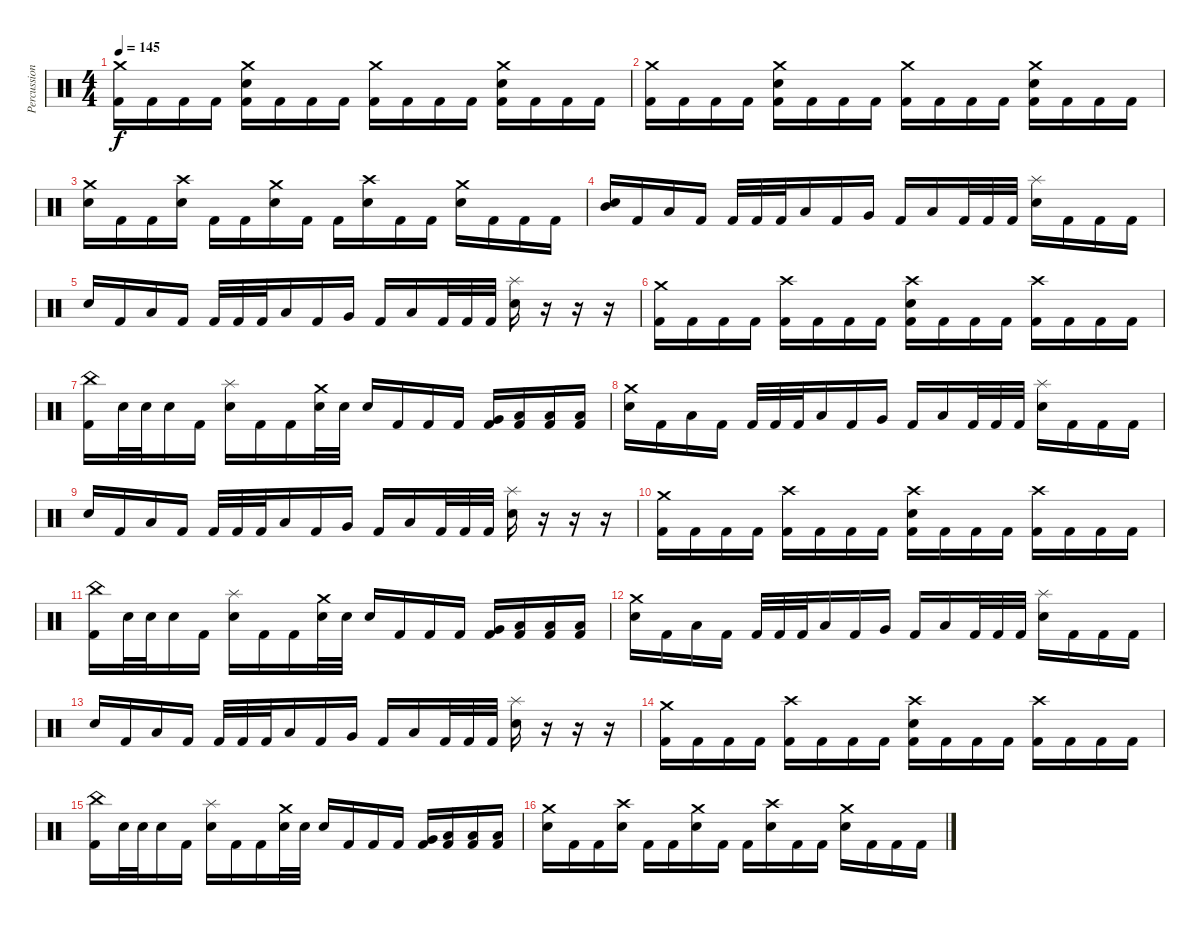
\track ("Percussion" "Percussion") {instrument percussion}
\staff {score}
\articulation defaults
\ts (4 4)
\tempo 145
\clef neutral
\ks c
("Crash medium (hit)" "Kick (hit) 2").16{dy f} "Kick (hit) 2".16 "Kick (hit) 2".16 "Kick (hit) 2".16 ("Crash medium (hit)" "Electric Snare (hit)" "Kick (hit) 2").16 "Kick (hit) 2".16 "Kick (hit) 2".16 "Kick (hit) 2".16 ("Crash medium (hit)" "Kick (hit) 2").16 "Kick (hit) 2".16 "Kick (hit) 2".16 "Kick (hit) 2".16 ("Crash medium (hit)" "Electric Snare (hit)" "Kick (hit) 2").16 "Kick (hit) 2".16 "Kick (hit) 2".16 "Kick (hit) 2".16 |
("Crash medium (hit)" "Kick (hit) 2").16 "Kick (hit) 2".16 "Kick (hit) 2".16 "Kick (hit) 2".16 ("Crash medium (hit)" "Electric Snare (hit)" "Kick (hit) 2").16 "Kick (hit) 2".16 "Kick (hit) 2".16 "Kick (hit) 2".16 ("Crash medium (hit)" "Kick (hit) 2").16 "Kick (hit) 2".16 "Kick (hit) 2".16 "Kick (hit) 2".16 ("Crash medium (hit)" "Electric Snare (hit)" "Kick (hit) 2").16 "Kick (hit) 2".16 "Kick (hit) 2".16 "Kick (hit) 2".16 |
("Crash medium (hit)" "Electric Snare (hit)").16 "Kick (hit) 2".16 "Kick (hit) 2".16 ("Crash high (hit)" "Electric Snare (hit)").16 "Kick (hit) 2".16 "Kick (hit) 2".16 ("Crash medium (hit)" "Electric Snare (hit)").16 "Kick (hit) 2".16 "Kick (hit) 2".16 ("Crash high (hit)" "Electric Snare (hit)").16 "Kick (hit) 2".16 "Kick (hit) 2".16 ("Crash medium (hit)" "Electric Snare (hit)").16 "Kick (hit) 2".16 "Kick (hit) 2".16 "Kick (hit) 2".16 |
("Electric Snare (hit)" "Mid Tom (hit)").16 "Kick (hit) 2".16 "Low Tom (hit)".16 "Kick (hit) 2".16 "Kick (hit) 2".32 "Kick (hit) 2".32 "Kick (hit) 2".32 "Low Tom (hit)".16 "Kick (hit) 2".16 "Very Low Tom (hit)".16 "Kick (hit) 2".16 "Low Floor Tom (hit)".16 "Kick (hit) 2".32 "Kick (hit) 2".32 "Kick (hit) 2".32 ("Splash (hit)" "Electric Snare (hit)").16 "Kick (hit) 2".16 "Kick (hit) 2".16 "Kick (hit) 2".16 |
"Electric Snare (hit)".16 "Kick (hit) 2".16 "Low Tom (hit)".16 "Kick (hit) 2".16 "Kick (hit) 2".32 "Kick (hit) 2".32 "Kick (hit) 2".32 "Low Tom (hit)".16 "Kick (hit) 2".16 "Very Low Tom (hit)".16 "Kick (hit) 2".16 "Low Floor Tom (hit)".16 "Kick (hit) 2".32 "Kick (hit) 2".32 "Kick (hit) 2".32 ("Splash (hit)" "Electric Snare (hit)").16 r.16 r.16 r.16 |
("Crash medium (hit)" "Kick (hit) 2").16 "Kick (hit) 2".16 "Kick (hit) 2".16 "Kick (hit) 2".16 ("Crash high (hit)" "Kick (hit) 2").16 "Kick (hit) 2".16 "Kick (hit) 2".16 "Kick (hit) 2".16 ("Crash high (hit)" "Electric Snare (hit)" "Kick (hit) 2").16 "Kick (hit) 2".16 "Kick (hit) 2".16 "Kick (hit) 2".16 ("Crash high (hit)" "Kick (hit) 2").16 "Kick (hit) 2".16 "Kick (hit) 2".16 "Kick (hit) 2".16 |
("China (hit)" "Kick (hit) 2").16 "Electric Snare (hit)".32 "Electric Snare (hit)".32 "Electric Snare (hit)".16 "Kick (hit) 2".16 ("Splash (hit)" "Electric Snare (hit)").16 "Kick (hit) 2".16 "Kick (hit) 2".16 ("Crash medium (hit)" "Electric Snare (hit)").32 "Electric Snare (hit)".32 "Electric Snare (hit)".16 "Kick (hit) 2".16 "Kick (hit) 2".16 "Kick (hit) 2".16 ("Very Low Tom (hit)" "Kick (hit) 2").16 ("Low Floor Tom (hit)" "Kick (hit) 2").16 ("Low Floor Tom (hit)" "Kick (hit) 2").16 ("Low Floor Tom (hit)" "Kick (hit) 2").16 |
("Crash medium (hit)" "Electric Snare (hit)").16 "Kick (hit) 2".16 "Low Tom (hit)".16 "Kick (hit) 2".16 "Kick (hit) 2".32 "Kick (hit) 2".32 "Kick (hit) 2".32 "Low Tom (hit)".16 "Kick (hit) 2".16 "Very Low Tom (hit)".16 "Kick (hit) 2".16 "Low Floor Tom (hit)".16 "Kick (hit) 2".32 "Kick (hit) 2".32 "Kick (hit) 2".32 ("Splash (hit)" "Electric Snare (hit)").16 "Kick (hit) 2".16 "Kick (hit) 2".16 "Kick (hit) 2".16 |
"Electric Snare (hit)".16 "Kick (hit) 2".16 "Low Tom (hit)".16 "Kick (hit) 2".16 "Kick (hit) 2".32 "Kick (hit) 2".32 "Kick (hit) 2".32 "Low Tom (hit)".16 "Kick (hit) 2".16 "Very Low Tom (hit)".16 "Kick (hit) 2".16 "Low Floor Tom (hit)".16 "Kick (hit) 2".32 "Kick (hit) 2".32 "Kick (hit) 2".32 ("Splash (hit)" "Electric Snare (hit)").16 r.16 r.16 r.16 |
("Crash medium (hit)" "Kick (hit) 2").16 "Kick (hit) 2".16 "Kick (hit) 2".16 "Kick (hit) 2".16 ("Crash high (hit)" "Kick (hit) 2").16 "Kick (hit) 2".16 "Kick (hit) 2".16 "Kick (hit) 2".16 ("Crash high (hit)" "Electric Snare (hit)" "Kick (hit) 2").16 "Kick (hit) 2".16 "Kick (hit) 2".16 "Kick (hit) 2".16 ("Crash high (hit)" "Kick (hit) 2").16 "Kick (hit) 2".16 "Kick (hit) 2".16 "Kick (hit) 2".16 |
("China (hit)" "Kick (hit) 2").16 "Electric Snare (hit)".32 "Electric Snare (hit)".32 "Electric Snare (hit)".16 "Kick (hit) 2".16 ("Splash (hit)" "Electric Snare (hit)").16 "Kick (hit) 2".16 "Kick (hit) 2".16 ("Crash medium (hit)" "Electric Snare (hit)").32 "Electric Snare (hit)".32 "Electric Snare (hit)".16 "Kick (hit) 2".16 "Kick (hit) 2".16 "Kick (hit) 2".16 ("Very Low Tom (hit)" "Kick (hit) 2").16 ("Low Floor Tom (hit)" "Kick (hit) 2").16 ("Low Floor Tom (hit)" "Kick (hit) 2").16 ("Low Floor Tom (hit)" "Kick (hit) 2").16 |
("Crash medium (hit)" "Electric Snare (hit)").16 "Kick (hit) 2".16 "Low Tom (hit)".16 "Kick (hit) 2".16 "Kick (hit) 2".32 "Kick (hit) 2".32 "Kick (hit) 2".32 "Low Tom (hit)".16 "Kick (hit) 2".16 "Very Low Tom (hit)".16 "Kick (hit) 2".16 "Low Floor Tom (hit)".16 "Kick (hit) 2".32 "Kick (hit) 2".32 "Kick (hit) 2".32 ("Splash (hit)" "Electric Snare (hit)").16 "Kick (hit) 2".16 "Kick (hit) 2".16 "Kick (hit) 2".16 |
"Electric Snare (hit)".16 "Kick (hit) 2".16 "Low Tom (hit)".16 "Kick (hit) 2".16 "Kick (hit) 2".32 "Kick (hit) 2".32 "Kick (hit) 2".32 "Low Tom (hit)".16 "Kick (hit) 2".16 "Very Low Tom (hit)".16 "Kick (hit) 2".16 "Low Floor Tom (hit)".16 "Kick (hit) 2".32 "Kick (hit) 2".32 "Kick (hit) 2".32 ("Splash (hit)" "Electric Snare (hit)").16 r.16 r.16 r.16 |
("Crash medium (hit)" "Kick (hit) 2").16 "Kick (hit) 2".16 "Kick (hit) 2".16 "Kick (hit) 2".16 ("Crash high (hit)" "Kick (hit) 2").16 "Kick (hit) 2".16 "Kick (hit) 2".16 "Kick (hit) 2".16 ("Crash high (hit)" "Electric Snare (hit)" "Kick (hit) 2").16 "Kick (hit) 2".16 "Kick (hit) 2".16 "Kick (hit) 2".16 ("Crash high (hit)" "Kick (hit) 2").16 "Kick (hit) 2".16 "Kick (hit) 2".16 "Kick (hit) 2".16 |
("China (hit)" "Kick (hit) 2").16 "Electric Snare (hit)".32 "Electric Snare (hit)".32 "Electric Snare (hit)".16 "Kick (hit) 2".16 ("Splash (hit)" "Electric Snare (hit)").16 "Kick (hit) 2".16 "Kick (hit) 2".16 ("Crash medium (hit)" "Electric Snare (hit)").32 "Electric Snare (hit)".32 "Electric Snare (hit)".16 "Kick (hit) 2".16 "Kick (hit) 2".16 "Kick (hit) 2".16 ("Very Low Tom (hit)" "Kick (hit) 2").16 ("Low Floor Tom (hit)" "Kick (hit) 2").16 ("Low Floor Tom (hit)" "Kick (hit) 2").16 ("Low Floor Tom (hit)" "Kick (hit) 2").16 |
("Crash medium (hit)" "Electric Snare (hit)").16 "Kick (hit) 2".16 "Kick (hit) 2".16 ("Crash high (hit)" "Electric Snare (hit)").16 "Kick (hit) 2".16 "Kick (hit) 2".16 ("Crash medium (hit)" "Electric Snare (hit)").16 "Kick (hit) 2".16 "Kick (hit) 2".16 ("Crash high (hit)" "Electric Snare (hit)").16 "Kick (hit) 2".16 "Kick (hit) 2".16 ("Crash medium (hit)" "Electric Snare (hit)").16 "Kick (hit) 2".16 "Kick (hit) 2".16 "Kick (hit) 2".16
